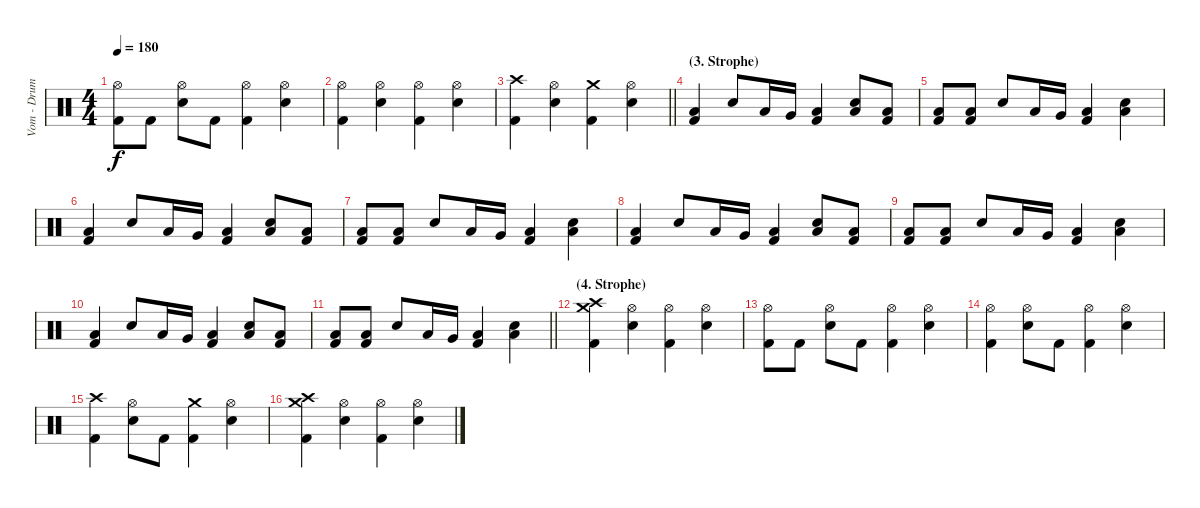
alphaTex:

\track ("Vom - Drums" "Vom - Drum") {instrument percussion}
\staff {score}
\articulation defaults
\ts (4 4)
\tempo 180
\clef neutral
\ks c
("Hi-Hat (open)" "Kick (hit) 2").8{dy f} "Kick (hit) 2".8 ("Hi-Hat (open)" "Electric Snare (hit)").8 "Kick (hit) 2".8 ("Hi-Hat (open)" "Kick (hit) 2").4 ("Hi-Hat (open)" "Electric Snare (hit)").4 |
("Hi-Hat (open)" "Kick (hit) 2").4 ("Hi-Hat (open)" "Electric Snare (hit)").4 ("Hi-Hat (open)" "Kick (hit) 2").4 ("Hi-Hat (open)" "Electric Snare (hit)").4 |
\barLineRight lightlight
("Crash high (hit)" "Kick (hit) 2").4 ("Hi-Hat (open)" "Electric Snare (hit)").4 ("Crash medium (hit)" "Kick (hit) 2").4 ("Hi-Hat (open)" "Electric Snare (hit)").4 |
\section ("" "(3. Strophe)")
("Low Floor Tom (hit)" "Kick (hit) 2").4 "Electric Snare (hit)".8 "Low Tom (hit)".16 "Very Low Tom (hit)".16 ("Low Floor Tom (hit)" "Kick (hit) 2").4 ("Electric Snare (hit)" "Low Floor Tom (hit)").8 ("Low Floor Tom (hit)" "Kick (hit) 2").8 |
("Low Floor Tom (hit)" "Kick (hit) 2").8 ("Low Floor Tom (hit)" "Kick (hit) 2").8 "Electric Snare (hit)".8 "Low Tom (hit)".16 "Very Low Tom (hit)".16 ("Low Floor Tom (hit)" "Kick (hit) 2").4 ("Electric Snare (hit)" "Low Floor Tom (hit)").4 |
("Low Floor Tom (hit)" "Kick (hit) 2").4 "Electric Snare (hit)".8 "Low Tom (hit)".16 "Very Low Tom (hit)".16 ("Low Floor Tom (hit)" "Kick (hit) 2").4 ("Electric Snare (hit)" "Low Floor Tom (hit)").8 ("Low Floor Tom (hit)" "Kick (hit) 2").8 |
("Low Floor Tom (hit)" "Kick (hit) 2").8 ("Low Floor Tom (hit)" "Kick (hit) 2").8 "Electric Snare (hit)".8 "Low Tom (hit)".16 "Very Low Tom (hit)".16 ("Low Floor Tom (hit)" "Kick (hit) 2").4 ("Electric Snare (hit)" "Low Floor Tom (hit)").4 |
("Low Floor Tom (hit)" "Kick (hit) 2").4 "Electric Snare (hit)".8 "Low Tom (hit)".16 "Very Low Tom (hit)".16 ("Low Floor Tom (hit)" "Kick (hit) 2").4 ("Electric Snare (hit)" "Low Floor Tom (hit)").8 ("Low Floor Tom (hit)" "Kick (hit) 2").8 |
("Low Floor Tom (hit)" "Kick (hit) 2").8 ("Low Floor Tom (hit)" "Kick (hit) 2").8 "Electric Snare (hit)".8 "Low Tom (hit)".16 "Very Low Tom (hit)".16 ("Low Floor Tom (hit)" "Kick (hit) 2").4 ("Electric Snare (hit)" "Low Floor Tom (hit)").4 |
("Low Floor Tom (hit)" "Kick (hit) 2").4 "Electric Snare (hit)".8 "Low Tom (hit)".16 "Very Low Tom (hit)".16 ("Low Floor Tom (hit)" "Kick (hit) 2").4 ("Electric Snare (hit)" "Low Floor Tom (hit)").8 ("Low Floor Tom (hit)" "Kick (hit) 2").8 |
\barLineRight lightlight
("Low Floor Tom (hit)" "Kick (hit) 2").8 ("Low Floor Tom (hit)" "Kick (hit) 2").8 "Electric Snare (hit)".8 "Low Tom (hit)".16 "Very Low Tom (hit)".16 ("Low Floor Tom (hit)" "Kick (hit) 2").4 ("Electric Snare (hit)" "Low Floor Tom (hit)").4 |
\section ("" "(4. Strophe)")
("Crash high (hit)" "Crash medium (hit)" "Kick (hit) 2").4 ("Hi-Hat (open)" "Electric Snare (hit)").4 ("Hi-Hat (open)" "Kick (hit) 2").4 ("Hi-Hat (open)" "Electric Snare (hit)").4 |
("Hi-Hat (open)" "Kick (hit) 2").8 "Kick (hit) 2".8 ("Hi-Hat (open)" "Electric Snare (hit)").8 "Kick (hit) 2".8 ("Hi-Hat (open)" "Kick (hit) 2").4 ("Hi-Hat (open)" "Electric Snare (hit)").4 |
("Hi-Hat (open)" "Kick (hit) 2").4 ("Hi-Hat (open)" "Electric Snare (hit)").8 "Kick (hit) 2".8 ("Hi-Hat (open)" "Kick (hit) 2").4 ("Hi-Hat (open)" "Electric Snare (hit)").4 |
("Crash high (hit)" "Kick (hit) 2").4 ("Hi-Hat (open)" "Electric Snare (hit)").8 "Kick (hit) 2".8 ("Crash medium (hit)" "Kick (hit) 2").4 ("Hi-Hat (open)" "Electric Snare (hit)").4 |
("Crash high (hit)" "Crash medium (hit)" "Kick (hit) 2").4 ("Hi-Hat (open)" "Electric Snare (hit)").4 ("Hi-Hat (open)" "Kick (hit) 2").4 ("Hi-Hat (open)" "Electric Snare (hit)").4
